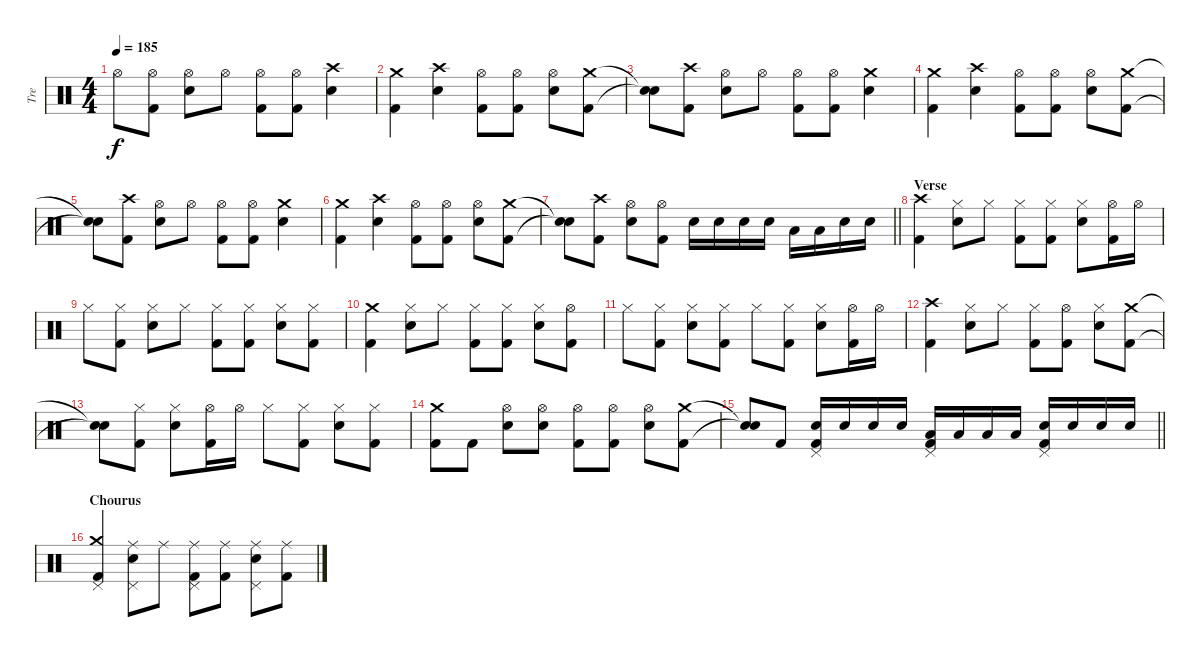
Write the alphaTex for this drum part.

\track ("Tre" "Tre") {instrument percussion}
\staff {score}
\articulation defaults
\ts (4 4)
\tempo 185
\clef neutral
\ks c "Hi-Hat (open)".8{dy f}
("Hi-Hat (open)" "Kick (hit) 2").8 ("Hi-Hat (open)" "Electric Snare (hit)").8 "Hi-Hat (open)".8 ("Hi-Hat (open)" "Kick (hit) 2").8 ("Hi-Hat (open)" "Kick (hit) 2").8 ("Crash high (hit)" "Electric Snare (hit)").4 |
("Crash medium (hit)" "Kick (hit) 2").4 ("Crash high (hit)" "Electric Snare (hit)").4 ("Hi-Hat (open)" "Kick (hit) 2").8 ("Hi-Hat (open)" "Kick (hit) 2").8 ("Hi-Hat (open)" "Electric Snare (hit)").8 ("Crash medium (hit)" "Kick (hit) 2").8 |
("Snare (hit)"{t} "Snare (hit)"{t}).8 ("Crash high (hit)" "Kick (hit) 2").8 ("Hi-Hat (open)" "Electric Snare (hit)").8 "Hi-Hat (open)".8 ("Hi-Hat (open)" "Kick (hit) 2").8 ("Hi-Hat (open)" "Kick (hit) 2").8 ("Crash medium (hit)" "Electric Snare (hit)").4 |
("Crash medium (hit)" "Kick (hit) 2").4 ("Crash high (hit)" "Electric Snare (hit)").4 ("Hi-Hat (open)" "Kick (hit) 2").8 ("Hi-Hat (open)" "Kick (hit) 2").8 ("Hi-Hat (open)" "Electric Snare (hit)").8 ("Crash medium (hit)" "Kick (hit) 2").8 |
("Snare (hit)"{t} "Snare (hit)"{t}).8 ("Crash high (hit)" "Kick (hit) 2").8 ("Hi-Hat (open)" "Electric Snare (hit)").8 "Hi-Hat (open)".8 ("Hi-Hat (open)" "Kick (hit) 2").8 ("Hi-Hat (open)" "Kick (hit) 2").8 ("Crash medium (hit)" "Electric Snare (hit)").4 |
("Crash medium (hit)" "Kick (hit) 2").4 ("Crash high (hit)" "Electric Snare (hit)").4 ("Hi-Hat (open)" "Kick (hit) 2").8 ("Hi-Hat (open)" "Kick (hit) 2").8 ("Hi-Hat (open)" "Electric Snare (hit)").8 ("Crash medium (hit)" "Kick (hit) 2").8 |
\barLineRight lightlight
("Snare (hit)"{t} "Snare (hit)"{t}).8 ("Crash high (hit)" "Kick (hit) 2").8 ("Hi-Hat (open)" "Electric Snare (hit)").8 ("Hi-Hat (open)" "Kick (hit) 2").8 "Electric Snare (hit)".16 "Electric Snare (hit)".16 "Electric Snare (hit)".16 "Electric Snare (hit)".16 "Low Tom (hit)".16 "Low Tom (hit)".16 "Electric Snare (hit)".16 "Electric Snare (hit)".16 |
\section ("" "Verse")
("Crash high (hit)" "Kick (hit) 2").4 ("Hi-Hat (closed)" "Electric Snare (hit)").8 "Hi-Hat (closed)".8 ("Hi-Hat (closed)" "Kick (hit) 2").8 ("Hi-Hat (closed)" "Kick (hit) 2").8 ("Hi-Hat (closed)" "Electric Snare (hit)").8 ("Hi-Hat (open)" "Kick (hit) 2").16 "Hi-Hat (open)".16 |
"Hi-Hat (closed)".8 ("Hi-Hat (closed)" "Kick (hit) 2").8 ("Hi-Hat (closed)" "Electric Snare (hit)").8 "Hi-Hat (closed)".8 ("Hi-Hat (closed)" "Kick (hit) 2").8 ("Hi-Hat (closed)" "Kick (hit) 2").8 ("Hi-Hat (closed)" "Electric Snare (hit)").8 ("Hi-Hat (closed)" "Kick (hit) 2").8 |
("Crash medium (hit)" "Kick (hit) 2").4 ("Hi-Hat (closed)" "Electric Snare (hit)").8 "Hi-Hat (closed)".8 ("Hi-Hat (closed)" "Kick (hit) 2").8 ("Hi-Hat (closed)" "Kick (hit) 2").8 ("Hi-Hat (closed)" "Electric Snare (hit)").8 ("Hi-Hat (open)" "Kick (hit) 2").8 |
"Hi-Hat (closed)".8 ("Hi-Hat (closed)" "Kick (hit) 2").8 ("Hi-Hat (closed)" "Electric Snare (hit)").8 ("Hi-Hat (closed)" "Kick (hit) 2").8 "Hi-Hat (closed)".8 ("Hi-Hat (closed)" "Kick (hit) 2").8 ("Hi-Hat (closed)" "Electric Snare (hit)").8 ("Hi-Hat (open)" "Kick (hit) 2").16 "Hi-Hat (open)".16 |
("Crash high (hit)" "Kick (hit) 2").4 ("Hi-Hat (closed)" "Electric Snare (hit)").8 "Hi-Hat (closed)".8 ("Hi-Hat (closed)" "Kick (hit) 2").8 ("Hi-Hat (open)" "Kick (hit) 2").8 ("Hi-Hat (closed)" "Electric Snare (hit)").8 ("Crash medium (hit)" "Kick (hit) 2").8 |
("Snare (hit)"{t} "Snare (hit)"{t}).8 ("Hi-Hat (closed)" "Kick (hit) 2").8 ("Hi-Hat (closed)" "Electric Snare (hit)").8 ("Hi-Hat (open)" "Kick (hit) 2").16 "Hi-Hat (open)".16 "Hi-Hat (closed)".8 ("Hi-Hat (closed)" "Kick (hit) 2").8 ("Hi-Hat (closed)" "Electric Snare (hit)").8 ("Hi-Hat (closed)" "Kick (hit) 2").8 |
("Crash medium (hit)" "Kick (hit) 2").8 "Kick (hit) 2".8 ("Hi-Hat (open)" "Electric Snare (hit)").8 ("Hi-Hat (open)" "Electric Snare (hit)").8 ("Hi-Hat (open)" "Kick (hit) 2").8 ("Hi-Hat (open)" "Kick (hit) 2").8 ("Hi-Hat (open)" "Electric Snare (hit)").8 ("Crash medium (hit)" "Kick (hit) 2").8 |
\barLineRight lightlight
("Snare (hit)"{t} "Snare (hit)"{t}).8 "Kick (hit) 2".8 ("Electric Snare (hit)" "Pedal Hi-Hat (hit)" "Kick (hit) 2").16 "Electric Snare (hit)".16 "Electric Snare (hit)".16 "Electric Snare (hit)".16 ("Low Tom (hit)" "Pedal Hi-Hat (hit)" "Kick (hit) 2").16 "Low Tom (hit)".16 "Low Tom (hit)".16 "Low Tom (hit)".16 ("Electric Snare (hit)" "Pedal Hi-Hat (hit)" "Kick (hit) 2").16 "Electric Snare (hit)".16 "Electric Snare (hit)".16 "Electric Snare (hit)".16 |
\section ("" "Chourus")
("Crash medium (hit)" "Pedal Hi-Hat (hit)" "Kick (hit) 2").4 ("Ride (middle)" "Electric Snare (hit)" "Pedal Hi-Hat (hit)").8 "Ride (middle)".8 ("Ride (middle)" "Pedal Hi-Hat (hit)" "Kick (hit) 2").8 ("Ride (middle)" "Kick (hit) 2").8 ("Ride (middle)" "Electric Snare (hit)" "Pedal Hi-Hat (hit)").8 ("Ride (middle)" "Kick (hit) 2").8
